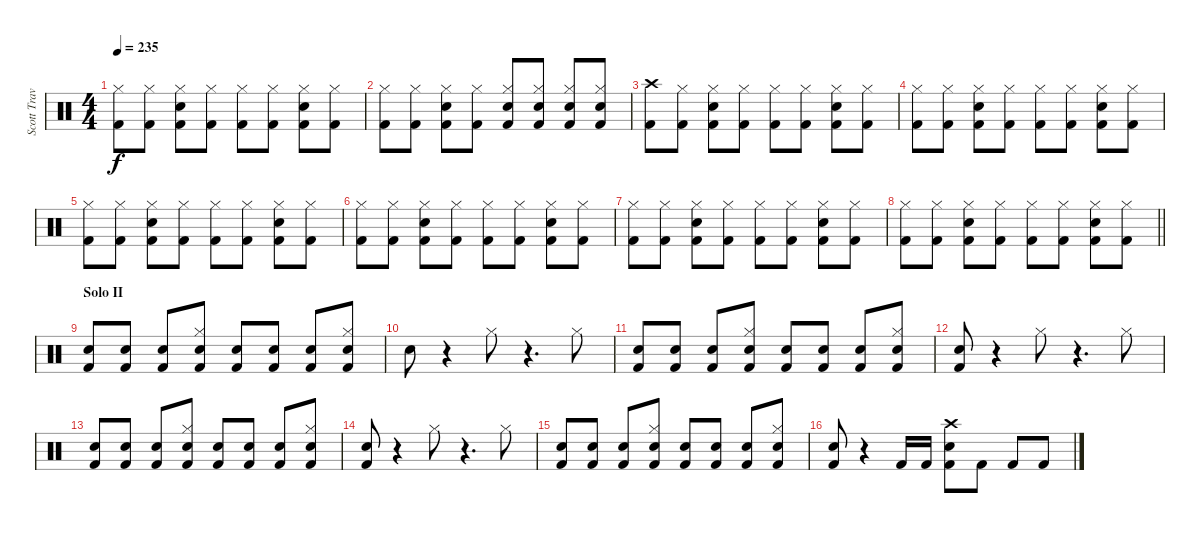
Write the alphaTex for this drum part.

\track ("Scott Travis" "Scott Trav") {instrument percussion}
\staff {score}
\articulation defaults
\ts (4 4)
\tempo 235
\clef neutral
\ks c
("Kick (hit) 2" "Hi-Hat (closed)").8{dy f} ("Kick (hit) 2" "Hi-Hat (closed)").8 ("Kick (hit) 2" "Snare (hit) 2" "Hi-Hat (closed)").8 ("Kick (hit) 2" "Hi-Hat (closed)").8 ("Kick (hit) 2" "Hi-Hat (closed)").8 ("Kick (hit) 2" "Hi-Hat (closed)").8 ("Kick (hit) 2" "Hi-Hat (closed)" "Snare (hit) 2").8 ("Kick (hit) 2" "Hi-Hat (closed)").8 |
("Kick (hit) 2" "Hi-Hat (closed)").8 ("Kick (hit) 2" "Hi-Hat (closed)").8 ("Kick (hit) 2" "Snare (hit) 2" "Hi-Hat (closed)").8 ("Kick (hit) 2" "Hi-Hat (closed)").8 ("Kick (hit) 2" "Hi-Hat (closed)" "Snare (hit) 2").8 ("Kick (hit) 2" "Hi-Hat (closed)" "Snare (hit) 2").8 ("Kick (hit) 2" "Hi-Hat (closed)" "Snare (hit) 2").8 ("Kick (hit) 2" "Hi-Hat (closed)" "Snare (hit) 2").8 |
("Kick (hit) 2" "Crash high (hit)").8 ("Kick (hit) 2" "Hi-Hat (closed)").8 ("Kick (hit) 2" "Snare (hit) 2" "Hi-Hat (closed)").8 ("Kick (hit) 2" "Hi-Hat (closed)").8 ("Kick (hit) 2" "Hi-Hat (closed)").8 ("Kick (hit) 2" "Hi-Hat (closed)").8 ("Kick (hit) 2" "Hi-Hat (closed)" "Snare (hit) 2").8 ("Kick (hit) 2" "Hi-Hat (closed)").8 |
("Kick (hit) 2" "Hi-Hat (closed)").8 ("Kick (hit) 2" "Hi-Hat (closed)").8 ("Kick (hit) 2" "Snare (hit) 2" "Hi-Hat (closed)").8 ("Kick (hit) 2" "Hi-Hat (closed)").8 ("Kick (hit) 2" "Hi-Hat (closed)").8 ("Kick (hit) 2" "Hi-Hat (closed)").8 ("Kick (hit) 2" "Hi-Hat (closed)" "Snare (hit) 2").8 ("Kick (hit) 2" "Hi-Hat (closed)").8 |
("Kick (hit) 2" "Hi-Hat (closed)").8 ("Kick (hit) 2" "Hi-Hat (closed)").8 ("Kick (hit) 2" "Snare (hit) 2" "Hi-Hat (closed)").8 ("Kick (hit) 2" "Hi-Hat (closed)").8 ("Kick (hit) 2" "Hi-Hat (closed)").8 ("Kick (hit) 2" "Hi-Hat (closed)").8 ("Kick (hit) 2" "Hi-Hat (closed)" "Snare (hit) 2").8 ("Kick (hit) 2" "Hi-Hat (closed)").8 |
("Kick (hit) 2" "Hi-Hat (closed)").8 ("Kick (hit) 2" "Hi-Hat (closed)").8 ("Kick (hit) 2" "Snare (hit) 2" "Hi-Hat (closed)").8 ("Kick (hit) 2" "Hi-Hat (closed)").8 ("Kick (hit) 2" "Hi-Hat (closed)").8 ("Kick (hit) 2" "Hi-Hat (closed)").8 ("Kick (hit) 2" "Hi-Hat (closed)" "Snare (hit) 2").8 ("Kick (hit) 2" "Hi-Hat (closed)").8 |
("Kick (hit) 2" "Hi-Hat (closed)").8 ("Kick (hit) 2" "Hi-Hat (closed)").8 ("Kick (hit) 2" "Snare (hit) 2" "Hi-Hat (closed)").8 ("Kick (hit) 2" "Hi-Hat (closed)").8 ("Kick (hit) 2" "Hi-Hat (closed)").8 ("Kick (hit) 2" "Hi-Hat (closed)").8 ("Kick (hit) 2" "Hi-Hat (closed)" "Snare (hit) 2").8 ("Kick (hit) 2" "Hi-Hat (closed)").8 |
\barLineRight lightlight
("Kick (hit) 2" "Hi-Hat (closed)").8 ("Kick (hit) 2" "Hi-Hat (closed)").8 ("Kick (hit) 2" "Snare (hit) 2" "Hi-Hat (closed)").8 ("Kick (hit) 2" "Hi-Hat (closed)").8 ("Kick (hit) 2" "Hi-Hat (closed)").8 ("Kick (hit) 2" "Hi-Hat (closed)").8 ("Kick (hit) 2" "Hi-Hat (closed)" "Snare (hit) 2").8 ("Kick (hit) 2" "Hi-Hat (closed)").8 |
\section ("" "Solo II")
("Snare (hit) 2" "Kick (hit) 2").8 ("Snare (hit) 2" "Kick (hit) 2").8 ("Snare (hit) 2" "Kick (hit) 2").8 ("Snare (hit) 2" "Kick (hit) 2" "Hi-Hat (closed)").8 ("Snare (hit) 2" "Kick (hit) 2").8 ("Snare (hit) 2" "Kick (hit) 2").8 ("Snare (hit) 2" "Kick (hit) 2").8 ("Snare (hit) 2" "Kick (hit) 2" "Hi-Hat (closed)").8 |
"Snare (hit) 2".8 r.4 "Hi-Hat (closed)".8 r.4{d} "Hi-Hat (closed)".8 |
("Snare (hit) 2" "Kick (hit) 2").8 ("Snare (hit) 2" "Kick (hit) 2").8 ("Snare (hit) 2" "Kick (hit) 2").8 ("Snare (hit) 2" "Hi-Hat (closed)" "Kick (hit) 2").8 ("Snare (hit) 2" "Kick (hit) 2").8 ("Snare (hit) 2" "Kick (hit) 2").8 ("Snare (hit) 2" "Kick (hit) 2").8 ("Snare (hit) 2" "Hi-Hat (closed)" "Kick (hit) 2").8 |
("Snare (hit) 2" "Kick (hit) 2").8 r.4 "Hi-Hat (closed)".8 r.4{d} "Hi-Hat (closed)".8 |
("Snare (hit) 2" "Kick (hit) 2").8 ("Snare (hit) 2" "Kick (hit) 2").8 ("Snare (hit) 2" "Kick (hit) 2").8 ("Snare (hit) 2" "Hi-Hat (closed)" "Kick (hit) 2").8 ("Snare (hit) 2" "Kick (hit) 2").8 ("Snare (hit) 2" "Kick (hit) 2").8 ("Snare (hit) 2" "Kick (hit) 2").8 ("Snare (hit) 2" "Hi-Hat (closed)" "Kick (hit) 2").8 |
("Snare (hit) 2" "Kick (hit) 2").8 r.4 "Hi-Hat (closed)".8 r.4{d} "Hi-Hat (closed)".8 |
("Snare (hit) 2" "Kick (hit) 2").8 ("Snare (hit) 2" "Kick (hit) 2").8 ("Snare (hit) 2" "Kick (hit) 2").8 ("Snare (hit) 2" "Hi-Hat (closed)" "Kick (hit) 2").8 ("Snare (hit) 2" "Kick (hit) 2").8 ("Snare (hit) 2" "Kick (hit) 2").8 ("Snare (hit) 2" "Kick (hit) 2").8 ("Snare (hit) 2" "Hi-Hat (closed)" "Kick (hit) 2").8 |
("Snare (hit) 2" "Kick (hit) 2").8 r.4 "Kick (hit) 2".16 "Kick (hit) 2".16 ("Snare (hit) 2" "Crash high (hit)" "Kick (hit) 2").8 "Kick (hit) 2".8 "Kick (hit) 2".8 "Kick (hit) 2".8
